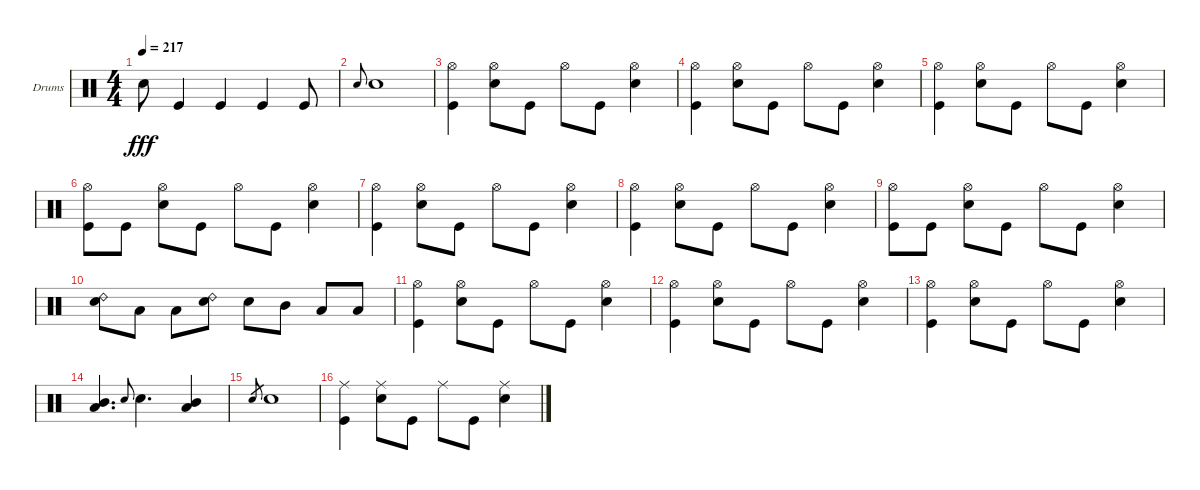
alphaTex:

\bracketExtendMode groupsimilarinstruments
\firstSystemTrackNameOrientation horizontal
\otherSystemsTrackNameOrientation horizontal
\track ("Drumkit" "Drums") {instrument percussion}
\staff {score}
\articulation defaults
\ts (4 4)
\tempo 217
\clef neutral
\ks c "Snare (hit) 2".8{dy fff} "Kick (hit)".4 "Kick (hit)".4 "Kick (hit)".4 "Kick (hit)".8
|
"Snare (hit) 2".8{gr onbeat} "Snare (hit) 2".1 |
("Kick (hit)" "Hi-Hat (open)").4 ("Hi-Hat (open)" "Snare (hit) 2").8 "Kick (hit)".8 "Hi-Hat (open)".8 "Kick (hit)".8 ("Snare (hit) 2" "Hi-Hat (open)").4 |
("Kick (hit)" "Hi-Hat (open)").4 ("Hi-Hat (open)" "Snare (hit) 2").8 "Kick (hit)".8 "Hi-Hat (open)".8 "Kick (hit)".8 ("Snare (hit) 2" "Hi-Hat (open)").4 |
("Kick (hit)" "Hi-Hat (open)").4 ("Hi-Hat (open)" "Snare (hit) 2").8 "Kick (hit)".8 "Hi-Hat (open)".8 "Kick (hit)".8 ("Snare (hit) 2" "Hi-Hat (open)").4 |
("Kick (hit)" "Hi-Hat (open)").8 "Kick (hit)".8 ("Snare (hit) 2" "Hi-Hat (open)").8 "Kick (hit)".8 "Hi-Hat (open)".8 "Kick (hit)".8 ("Snare (hit) 2" "Hi-Hat (open)").4 |
("Kick (hit)" "Hi-Hat (open)").4 ("Hi-Hat (open)" "Snare (hit) 2").8 "Kick (hit)".8 "Hi-Hat (open)".8 "Kick (hit)".8 ("Snare (hit) 2" "Hi-Hat (open)").4 |
("Kick (hit)" "Hi-Hat (open)").4 ("Hi-Hat (open)" "Snare (hit) 2").8 "Kick (hit)".8 "Hi-Hat (open)".8 "Kick (hit)".8 ("Snare (hit) 2" "Hi-Hat (open)").4 |
("Kick (hit)" "Hi-Hat (open)").8 "Kick (hit)".8 ("Snare (hit) 2" "Hi-Hat (open)").8 "Kick (hit)".8 "Hi-Hat (open)".8 "Kick (hit)".8 ("Snare (hit) 2" "Hi-Hat (open)").4 |
("Snare (hit) 2" "Ride (bell) 2").8 "Low Tom (hit)".8 "Low Tom (hit)".8 ("Snare (hit) 2" "Ride (bell) 2").8 "Snare (hit) 2".8 "Mid Tom (hit)".8 "Low Tom (hit)".8 "Low Tom (hit)".8 |
("Kick (hit)" "Hi-Hat (open)").4 ("Hi-Hat (open)" "Snare (hit) 2").8 "Kick (hit)".8 "Hi-Hat (open)".8 "Kick (hit)".8 ("Snare (hit) 2" "Hi-Hat (open)").4 |
("Kick (hit)" "Hi-Hat (open)").4 ("Hi-Hat (open)" "Snare (hit) 2").8 "Kick (hit)".8 "Hi-Hat (open)".8 "Kick (hit)".8 ("Snare (hit) 2" "Hi-Hat (open)").4 |
("Kick (hit)" "Hi-Hat (open)").4 ("Hi-Hat (open)" "Snare (hit) 2").8 "Kick (hit)".8 "Hi-Hat (open)".8 "Kick (hit)".8 ("Snare (hit) 2" "Hi-Hat (open)").4 |
("Mid Tom (hit)" "Low Tom (hit)").4{d} "Snare (hit) 2".8{gr onbeat} "Snare (hit) 2".4{d} ("Mid Tom (hit)" "Low Tom (hit)").4 |
"Snare (hit) 2".8{gr} "Snare (hit) 2".1 |
("Kick (hit)" "Ride (middle)").4 ("Snare (hit) 2" "Ride (middle)").8 "Kick (hit)".8 "Ride (middle)".8 "Kick (hit)".8 ("Snare (hit) 2" "Ride (middle)").4
